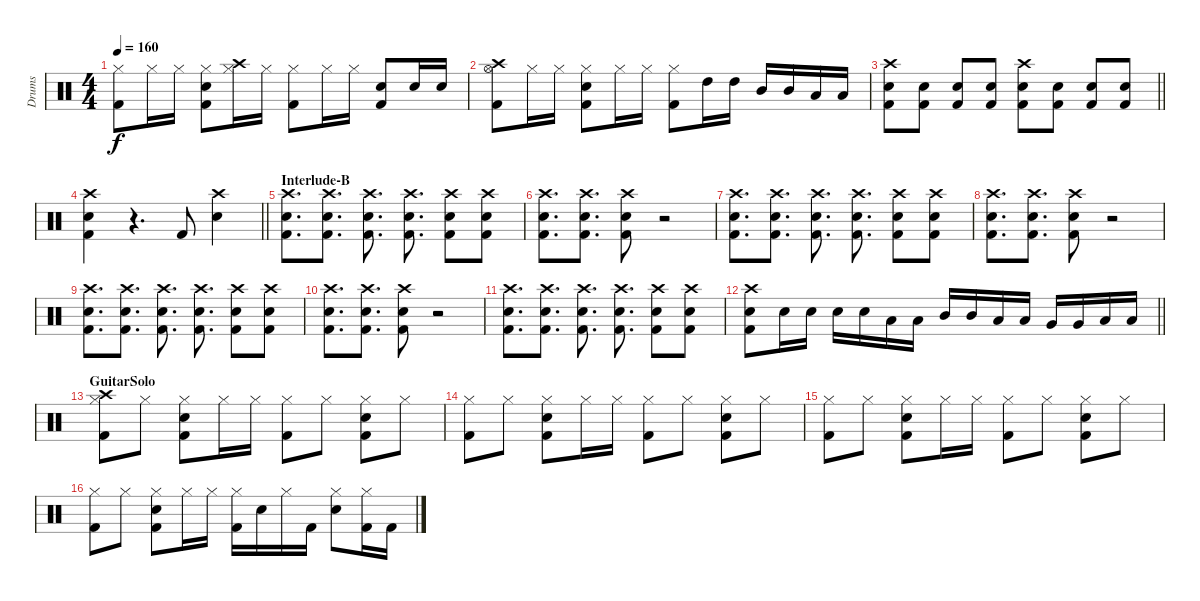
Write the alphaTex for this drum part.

\track ("Drums" "Drums") {instrument percussion}
\staff {score}
\articulation defaults
\ts (4 4)
\tempo 160
\clef neutral
\ks c
("Hi-Hat (closed)" "Kick (hit) 2").8{dy f} "Hi-Hat (closed)".16 "Hi-Hat (closed)".16 ("Hi-Hat (closed)" "Snare (hit) 2" "Kick (hit) 2").8 ("Hi-Hat (closed)" "Crash high (hit)").16 "Hi-Hat (closed)".16 ("Hi-Hat (closed)" "Kick (hit) 2").8 "Hi-Hat (closed)".16 "Hi-Hat (closed)".16 ("Snare (hit) 2" "Kick (hit) 2").8 "Snare (hit) 2".16 "Snare (hit) 2".16 |
("Hi-Hat (open)" "Crash high (hit)" "Kick (hit) 2").8 "Hi-Hat (closed)".16 "Hi-Hat (closed)".16 ("Hi-Hat (closed)" "Snare (hit) 2" "Kick (hit) 2").8 "Hi-Hat (closed)".16 "Hi-Hat (closed)".16 ("Hi-Hat (closed)" "Kick (hit) 2").8 "High Tom (hit)".16 "High Tom (hit)".16 "Mid Tom (hit)".16 "Mid Tom (hit)".16 "Low Tom (hit)".16 "Low Tom (hit)".16 |
\barLineRight lightlight
("Crash high (hit)" "Snare (hit) 2" "Kick (hit) 2").8 ("Snare (hit) 2" "Kick (hit) 2").8 ("Snare (hit) 2" "Kick (hit) 2").8 ("Snare (hit) 2" "Kick (hit) 2").8 ("Crash high (hit)" "Snare (hit) 2" "Kick (hit) 2").8 ("Snare (hit) 2" "Kick (hit) 2").8 ("Snare (hit) 2" "Kick (hit) 2").8 ("Snare (hit) 2" "Kick (hit) 2").8 |
\barLineRight lightlight
("Crash high (hit)" "Snare (hit) 2" "Kick (hit) 2").4 r.4{d} "Kick (hit) 2".8 ("Crash high (hit)" "Snare (hit) 2").4 |
\section ("" "Interlude-B")
("Crash high (hit)" "Snare (hit) 2" "Kick (hit) 2").8{d} ("Crash high (hit)" "Snare (hit) 2" "Kick (hit) 2").8{d} ("Crash high (hit)" "Snare (hit) 2" "Kick (hit) 2").8{d} ("Crash high (hit)" "Snare (hit) 2" "Kick (hit) 2").8{d} ("Crash high (hit)" "Snare (hit) 2" "Kick (hit) 2").8 ("Crash high (hit)" "Snare (hit) 2" "Kick (hit) 2").8 |
("Crash high (hit)" "Snare (hit) 2" "Kick (hit) 2").8{d} ("Crash high (hit)" "Snare (hit) 2" "Kick (hit) 2").8{d} ("Crash high (hit)" "Snare (hit) 2" "Kick (hit) 2").8 r.2 |
("Crash high (hit)" "Snare (hit) 2" "Kick (hit) 2").8{d} ("Crash high (hit)" "Snare (hit) 2" "Kick (hit) 2").8{d} ("Crash high (hit)" "Snare (hit) 2" "Kick (hit) 2").8{d} ("Crash high (hit)" "Snare (hit) 2" "Kick (hit) 2").8{d} ("Crash high (hit)" "Snare (hit) 2" "Kick (hit) 2").8 ("Crash high (hit)" "Snare (hit) 2" "Kick (hit) 2").8 |
("Crash high (hit)" "Snare (hit) 2" "Kick (hit) 2").8{d} ("Crash high (hit)" "Snare (hit) 2" "Kick (hit) 2").8{d} ("Crash high (hit)" "Snare (hit) 2" "Kick (hit) 2").8 r.2 |
("Crash high (hit)" "Snare (hit) 2" "Kick (hit) 2").8{d} ("Crash high (hit)" "Snare (hit) 2" "Kick (hit) 2").8{d} ("Crash high (hit)" "Snare (hit) 2" "Kick (hit) 2").8{d} ("Crash high (hit)" "Snare (hit) 2" "Kick (hit) 2").8{d} ("Crash high (hit)" "Snare (hit) 2" "Kick (hit) 2").8 ("Crash high (hit)" "Snare (hit) 2" "Kick (hit) 2").8 |
("Crash high (hit)" "Snare (hit) 2" "Kick (hit) 2").8{d} ("Crash high (hit)" "Snare (hit) 2" "Kick (hit) 2").8{d} ("Crash high (hit)" "Snare (hit) 2" "Kick (hit) 2").8 r.2 |
("Crash high (hit)" "Snare (hit) 2" "Kick (hit) 2").8{d} ("Crash high (hit)" "Snare (hit) 2" "Kick (hit) 2").8{d} ("Crash high (hit)" "Snare (hit) 2" "Kick (hit) 2").8{d} ("Crash high (hit)" "Snare (hit) 2" "Kick (hit) 2").8{d} ("Crash high (hit)" "Snare (hit) 2" "Kick (hit) 2").8 ("Crash high (hit)" "Snare (hit) 2" "Kick (hit) 2").8 |
\barLineRight lightlight
("Crash high (hit)" "Snare (hit) 2" "Kick (hit) 2").8 "Snare (hit) 2".16 "Snare (hit) 2".16 "Snare (hit) 2".16 "Snare (hit) 2".16 "Low Tom (hit)".16 "Low Tom (hit)".16 "Mid Tom (hit)".16 "Mid Tom (hit)".16 "Low Tom (hit)".16 "Low Tom (hit)".16 "Very Low Tom (hit)".16 "Very Low Tom (hit)".16 "Low Floor Tom (hit)".16 "Low Floor Tom (hit)".16 |
\section ("" "GuitarSolo")
("Hi-Hat (closed)" "Crash high (hit)" "Kick (hit) 2").8 "Hi-Hat (closed)".8 ("Hi-Hat (closed)" "Snare (hit) 2" "Kick (hit) 2").8 "Hi-Hat (closed)".16 "Hi-Hat (closed)".16 ("Hi-Hat (closed)" "Kick (hit) 2").8 "Hi-Hat (closed)".8 ("Hi-Hat (closed)" "Snare (hit) 2" "Kick (hit) 2").8 "Hi-Hat (closed)".8 |
("Hi-Hat (closed)" "Kick (hit) 2").8 "Hi-Hat (closed)".8 ("Hi-Hat (closed)" "Snare (hit) 2" "Kick (hit) 2").8 "Hi-Hat (closed)".16 "Hi-Hat (closed)".16 ("Hi-Hat (closed)" "Kick (hit) 2").8 "Hi-Hat (closed)".8 ("Hi-Hat (closed)" "Snare (hit) 2" "Kick (hit) 2").8 "Hi-Hat (closed)".8 |
("Hi-Hat (closed)" "Kick (hit) 2").8 "Hi-Hat (closed)".8 ("Hi-Hat (closed)" "Snare (hit) 2" "Kick (hit) 2").8 "Hi-Hat (closed)".16 "Hi-Hat (closed)".16 ("Hi-Hat (closed)" "Kick (hit) 2").8 "Hi-Hat (closed)".8 ("Hi-Hat (closed)" "Snare (hit) 2" "Kick (hit) 2").8 "Hi-Hat (closed)".8 |
("Hi-Hat (closed)" "Kick (hit) 2").8 "Hi-Hat (closed)".8 ("Hi-Hat (closed)" "Snare (hit) 2" "Kick (hit) 2").8 "Hi-Hat (closed)".16 "Hi-Hat (closed)".16 ("Hi-Hat (closed)" "Kick (hit) 2").16 "Snare (hit) 2".16 "Hi-Hat (closed)".16 "Kick (hit) 2".16 ("Hi-Hat (closed)" "Snare (hit) 2").8 ("Hi-Hat (closed)" "Kick (hit) 2").16 "Kick (hit) 2".16
